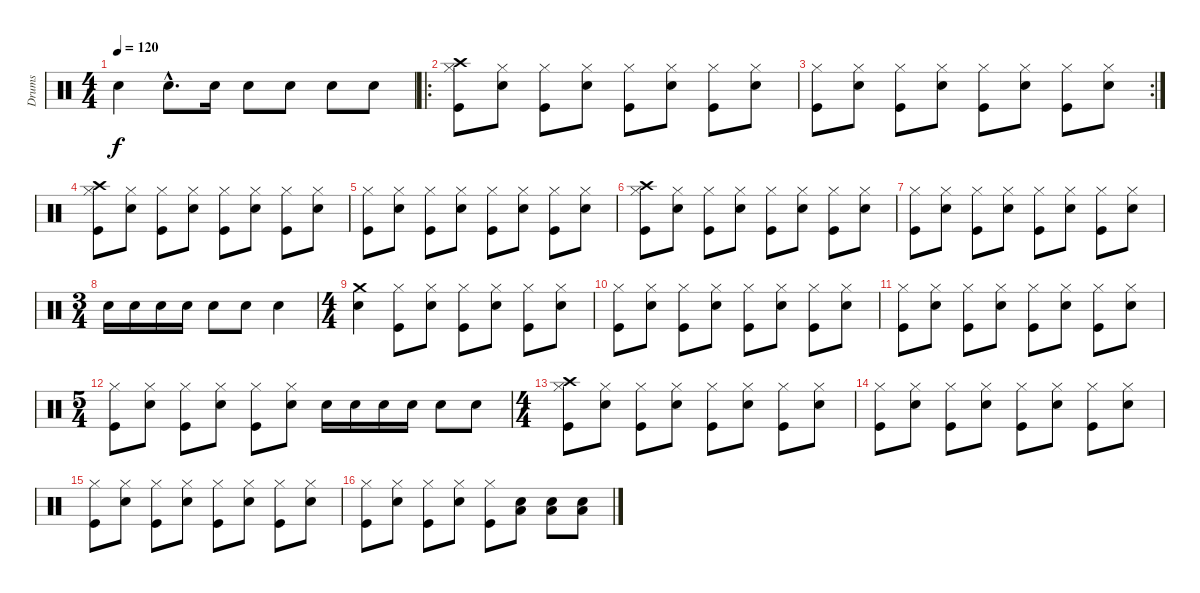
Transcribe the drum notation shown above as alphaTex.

\track ("Drums" "Drums") {instrument percussion}
\staff {score}
\articulation defaults
\ts (4 4)
\tempo 120
\clef neutral
\ks c "Electric Snare (hit)".4{dy f} "Electric Snare (hit)"{hac}.8{d} "Electric Snare (hit)".16 "Electric Snare (hit)".8 "Electric Snare (hit)".8 "Electric Snare (hit)".8 "Electric Snare (hit)".8
|
\ro
("Crash high (hit)" "Hi-Hat (closed)" "Kick (hit)").8 ("Hi-Hat (closed)" "Electric Snare (hit)").8 ("Hi-Hat (closed)" "Kick (hit)").8 ("Hi-Hat (closed)" "Electric Snare (hit)").8 ("Hi-Hat (closed)" "Kick (hit)").8 ("Hi-Hat (closed)" "Electric Snare (hit)").8 ("Hi-Hat (closed)" "Kick (hit)").8 ("Hi-Hat (closed)" "Electric Snare (hit)").8 |
\rc 2
("Hi-Hat (closed)" "Kick (hit)").8 ("Hi-Hat (closed)" "Electric Snare (hit)").8 ("Hi-Hat (closed)" "Kick (hit)").8 ("Hi-Hat (closed)" "Electric Snare (hit)").8 ("Hi-Hat (closed)" "Kick (hit)").8 ("Hi-Hat (closed)" "Electric Snare (hit)").8 ("Hi-Hat (closed)" "Kick (hit)").8 ("Hi-Hat (closed)" "Electric Snare (hit)").8 |
("Crash high (hit)" "Hi-Hat (closed)" "Kick (hit)").8 ("Hi-Hat (closed)" "Electric Snare (hit)").8 ("Hi-Hat (closed)" "Kick (hit)").8 ("Hi-Hat (closed)" "Electric Snare (hit)").8 ("Hi-Hat (closed)" "Kick (hit)").8 ("Hi-Hat (closed)" "Electric Snare (hit)").8 ("Hi-Hat (closed)" "Kick (hit)").8 ("Hi-Hat (closed)" "Electric Snare (hit)").8 |
("Hi-Hat (closed)" "Kick (hit)").8 ("Hi-Hat (closed)" "Electric Snare (hit)").8 ("Hi-Hat (closed)" "Kick (hit)").8 ("Hi-Hat (closed)" "Electric Snare (hit)").8 ("Hi-Hat (closed)" "Kick (hit)").8 ("Hi-Hat (closed)" "Electric Snare (hit)").8 ("Hi-Hat (closed)" "Kick (hit)").8 ("Hi-Hat (closed)" "Electric Snare (hit)").8 |
("Crash high (hit)" "Hi-Hat (closed)" "Kick (hit)").8 ("Hi-Hat (closed)" "Electric Snare (hit)").8 ("Hi-Hat (closed)" "Kick (hit)").8 ("Hi-Hat (closed)" "Electric Snare (hit)").8 ("Hi-Hat (closed)" "Kick (hit)").8 ("Hi-Hat (closed)" "Electric Snare (hit)").8 ("Hi-Hat (closed)" "Kick (hit)").8 ("Hi-Hat (closed)" "Electric Snare (hit)").8 |
("Hi-Hat (closed)" "Kick (hit)").8 ("Hi-Hat (closed)" "Electric Snare (hit)").8 ("Hi-Hat (closed)" "Kick (hit)").8 ("Hi-Hat (closed)" "Electric Snare (hit)").8 ("Hi-Hat (closed)" "Kick (hit)").8 ("Hi-Hat (closed)" "Electric Snare (hit)").8 ("Hi-Hat (closed)" "Kick (hit)").8 ("Hi-Hat (closed)" "Electric Snare (hit)").8 |
\ts (3 4)
"Electric Snare (hit)".16 "Electric Snare (hit)".16 "Electric Snare (hit)".16 "Electric Snare (hit)".16 "Electric Snare (hit)".8 "Electric Snare (hit)".8 "Electric Snare (hit)".4 |
\ts (4 4)
("Crash medium (hit)" "Electric Snare (hit)").4 ("Hi-Hat (closed)" "Kick (hit)").8 ("Hi-Hat (closed)" "Electric Snare (hit)").8 ("Hi-Hat (closed)" "Kick (hit)").8 ("Hi-Hat (closed)" "Electric Snare (hit)").8 ("Hi-Hat (closed)" "Kick (hit)").8 ("Hi-Hat (closed)" "Electric Snare (hit)").8 |
("Hi-Hat (closed)" "Kick (hit)").8 ("Hi-Hat (closed)" "Electric Snare (hit)").8 ("Hi-Hat (closed)" "Kick (hit)").8 ("Hi-Hat (closed)" "Electric Snare (hit)").8 ("Hi-Hat (closed)" "Kick (hit)").8 ("Hi-Hat (closed)" "Electric Snare (hit)").8 ("Hi-Hat (closed)" "Kick (hit)").8 ("Hi-Hat (closed)" "Electric Snare (hit)").8 |
("Hi-Hat (closed)" "Kick (hit)").8 ("Hi-Hat (closed)" "Electric Snare (hit)").8 ("Hi-Hat (closed)" "Kick (hit)").8 ("Hi-Hat (closed)" "Electric Snare (hit)").8 ("Hi-Hat (closed)" "Kick (hit)").8 ("Hi-Hat (closed)" "Electric Snare (hit)").8 ("Hi-Hat (closed)" "Kick (hit)").8 ("Hi-Hat (closed)" "Electric Snare (hit)").8 |
\ts (5 4)
("Hi-Hat (closed)" "Kick (hit)").8 ("Hi-Hat (closed)" "Electric Snare (hit)").8 ("Hi-Hat (closed)" "Kick (hit)").8 ("Hi-Hat (closed)" "Electric Snare (hit)").8 ("Hi-Hat (closed)" "Kick (hit)").8 ("Hi-Hat (closed)" "Electric Snare (hit)").8 "Electric Snare (hit)".16 "Electric Snare (hit)".16 "Electric Snare (hit)".16 "Electric Snare (hit)".16 "Electric Snare (hit)".8 "Electric Snare (hit)".8 |
\ts (4 4)
("Crash high (hit)" "Hi-Hat (closed)" "Kick (hit)").8 ("Hi-Hat (closed)" "Electric Snare (hit)").8 ("Hi-Hat (closed)" "Kick (hit)").8 ("Hi-Hat (closed)" "Electric Snare (hit)").8 ("Hi-Hat (closed)" "Kick (hit)").8 ("Hi-Hat (closed)" "Electric Snare (hit)").8 ("Hi-Hat (closed)" "Kick (hit)").8 ("Hi-Hat (closed)" "Electric Snare (hit)").8 |
("Hi-Hat (closed)" "Kick (hit)").8 ("Hi-Hat (closed)" "Electric Snare (hit)").8 ("Hi-Hat (closed)" "Kick (hit)").8 ("Hi-Hat (closed)" "Electric Snare (hit)").8 ("Hi-Hat (closed)" "Kick (hit)").8 ("Hi-Hat (closed)" "Electric Snare (hit)").8 ("Hi-Hat (closed)" "Kick (hit)").8 ("Hi-Hat (closed)" "Electric Snare (hit)").8 |
("Hi-Hat (closed)" "Kick (hit)").8 ("Hi-Hat (closed)" "Electric Snare (hit)").8 ("Hi-Hat (closed)" "Kick (hit)").8 ("Hi-Hat (closed)" "Electric Snare (hit)").8 ("Hi-Hat (closed)" "Kick (hit)").8 ("Hi-Hat (closed)" "Electric Snare (hit)").8 ("Hi-Hat (closed)" "Kick (hit)").8 ("Hi-Hat (closed)" "Electric Snare (hit)").8 |
("Hi-Hat (closed)" "Kick (hit)").8 ("Hi-Hat (closed)" "Electric Snare (hit)").8 ("Hi-Hat (closed)" "Kick (hit)").8 ("Hi-Hat (closed)" "Electric Snare (hit)").8 ("Hi-Hat (closed)" "Kick (hit)").8 ("Low Floor Tom (hit)" "Electric Snare (hit)").8 ("Low Floor Tom (hit)" "Electric Snare (hit)").8 ("Low Floor Tom (hit)" "Electric Snare (hit)").8
